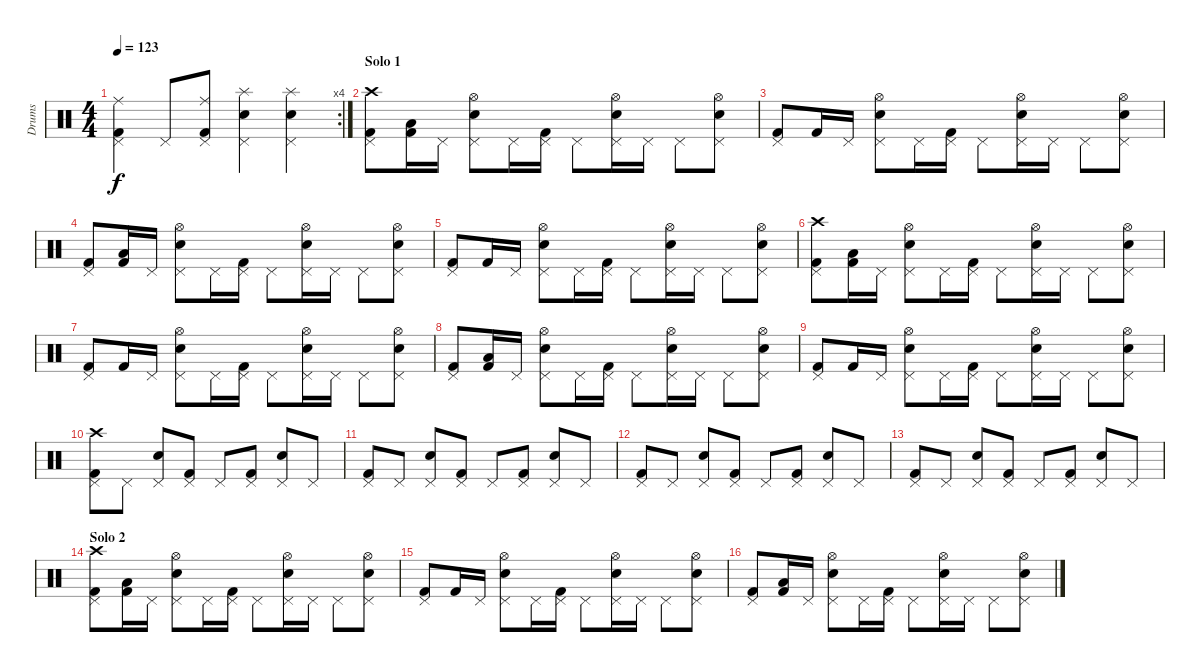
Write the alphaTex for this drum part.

\track ("Drums" "Drums") {instrument percussion}
\staff {score}
\articulation defaults
\rc 4
\ts (4 4)
\tempo 123
\clef neutral
\ks c
("Kick (hit) 2" "Pedal Hi-Hat (hit)" "Ride (middle)").4{dy f} "Pedal Hi-Hat (hit)".8 ("Kick (hit) 2" "Pedal Hi-Hat (hit)" "Ride (middle)").8 ("Snare (hit) 2" "Pedal Hi-Hat (hit)" "Splash (hit)").4 ("Snare (hit) 2" "Pedal Hi-Hat (hit)" "Splash (hit)").4 |
\section ("" "Solo 1")
("Kick (hit) 2" "Pedal Hi-Hat (hit)" "Crash high (hit)").8 ("Kick (hit) 2" "Low Tom (hit)").16 "Pedal Hi-Hat (hit)".16 ("Snare (hit) 2" "Pedal Hi-Hat (hit)" "Hi-Hat (open)").8 "Pedal Hi-Hat (hit)".16 ("Kick (hit) 2" "Pedal Hi-Hat (hit)").16 "Pedal Hi-Hat (hit)".8 ("Snare (hit) 2" "Pedal Hi-Hat (hit)" "Hi-Hat (open)").16 "Pedal Hi-Hat (hit)".16 "Pedal Hi-Hat (hit)".8 ("Snare (hit) 2" "Pedal Hi-Hat (hit)" "Hi-Hat (open)").8 |
("Kick (hit) 2" "Pedal Hi-Hat (hit)").8 "Kick (hit) 2".16 "Pedal Hi-Hat (hit)".16 ("Snare (hit) 2" "Pedal Hi-Hat (hit)" "Hi-Hat (open)").8 "Pedal Hi-Hat (hit)".16 ("Kick (hit) 2" "Pedal Hi-Hat (hit)").16 "Pedal Hi-Hat (hit)".8 ("Snare (hit) 2" "Pedal Hi-Hat (hit)" "Hi-Hat (open)").16 "Pedal Hi-Hat (hit)".16 "Pedal Hi-Hat (hit)".8 ("Snare (hit) 2" "Pedal Hi-Hat (hit)" "Hi-Hat (open)").8 |
("Kick (hit) 2" "Pedal Hi-Hat (hit)").8 ("Kick (hit) 2" "Low Tom (hit)").16 "Pedal Hi-Hat (hit)".16 ("Snare (hit) 2" "Pedal Hi-Hat (hit)" "Hi-Hat (open)").8 "Pedal Hi-Hat (hit)".16 ("Kick (hit) 2" "Pedal Hi-Hat (hit)").16 "Pedal Hi-Hat (hit)".8 ("Snare (hit) 2" "Pedal Hi-Hat (hit)" "Hi-Hat (open)").16 "Pedal Hi-Hat (hit)".16 "Pedal Hi-Hat (hit)".8 ("Snare (hit) 2" "Pedal Hi-Hat (hit)" "Hi-Hat (open)").8 |
("Kick (hit) 2" "Pedal Hi-Hat (hit)").8 "Kick (hit) 2".16 "Pedal Hi-Hat (hit)".16 ("Snare (hit) 2" "Pedal Hi-Hat (hit)" "Hi-Hat (open)").8 "Pedal Hi-Hat (hit)".16 ("Kick (hit) 2" "Pedal Hi-Hat (hit)").16 "Pedal Hi-Hat (hit)".8 ("Snare (hit) 2" "Pedal Hi-Hat (hit)" "Hi-Hat (open)").16 "Pedal Hi-Hat (hit)".16 "Pedal Hi-Hat (hit)".8 ("Snare (hit) 2" "Pedal Hi-Hat (hit)" "Hi-Hat (open)").8 |
("Kick (hit) 2" "Pedal Hi-Hat (hit)" "Crash high (hit)").8 ("Kick (hit) 2" "Low Tom (hit)").16 "Pedal Hi-Hat (hit)".16 ("Snare (hit) 2" "Pedal Hi-Hat (hit)" "Hi-Hat (open)").8 "Pedal Hi-Hat (hit)".16 ("Kick (hit) 2" "Pedal Hi-Hat (hit)").16 "Pedal Hi-Hat (hit)".8 ("Snare (hit) 2" "Pedal Hi-Hat (hit)" "Hi-Hat (open)").16 "Pedal Hi-Hat (hit)".16 "Pedal Hi-Hat (hit)".8 ("Snare (hit) 2" "Pedal Hi-Hat (hit)" "Hi-Hat (open)").8 |
("Kick (hit) 2" "Pedal Hi-Hat (hit)").8 "Kick (hit) 2".16 "Pedal Hi-Hat (hit)".16 ("Snare (hit) 2" "Pedal Hi-Hat (hit)" "Hi-Hat (open)").8 "Pedal Hi-Hat (hit)".16 ("Kick (hit) 2" "Pedal Hi-Hat (hit)").16 "Pedal Hi-Hat (hit)".8 ("Snare (hit) 2" "Pedal Hi-Hat (hit)" "Hi-Hat (open)").16 "Pedal Hi-Hat (hit)".16 "Pedal Hi-Hat (hit)".8 ("Snare (hit) 2" "Pedal Hi-Hat (hit)" "Hi-Hat (open)").8 |
("Kick (hit) 2" "Pedal Hi-Hat (hit)").8 ("Kick (hit) 2" "Low Tom (hit)").16 "Pedal Hi-Hat (hit)".16 ("Snare (hit) 2" "Pedal Hi-Hat (hit)" "Hi-Hat (open)").8 "Pedal Hi-Hat (hit)".16 ("Kick (hit) 2" "Pedal Hi-Hat (hit)").16 "Pedal Hi-Hat (hit)".8 ("Snare (hit) 2" "Pedal Hi-Hat (hit)" "Hi-Hat (open)").16 "Pedal Hi-Hat (hit)".16 "Pedal Hi-Hat (hit)".8 ("Snare (hit) 2" "Pedal Hi-Hat (hit)" "Hi-Hat (open)").8 |
("Kick (hit) 2" "Pedal Hi-Hat (hit)").8 "Kick (hit) 2".16 "Pedal Hi-Hat (hit)".16 ("Snare (hit) 2" "Pedal Hi-Hat (hit)" "Hi-Hat (open)").8 "Pedal Hi-Hat (hit)".16 ("Kick (hit) 2" "Pedal Hi-Hat (hit)").16 "Pedal Hi-Hat (hit)".8 ("Snare (hit) 2" "Pedal Hi-Hat (hit)" "Hi-Hat (open)").16 "Pedal Hi-Hat (hit)".16 "Pedal Hi-Hat (hit)".8 ("Snare (hit) 2" "Pedal Hi-Hat (hit)" "Hi-Hat (open)").8 |
("Kick (hit) 2" "Pedal Hi-Hat (hit)" "Crash high (hit)").8 "Pedal Hi-Hat (hit)".8 ("Snare (hit) 2" "Pedal Hi-Hat (hit)").8 ("Kick (hit) 2" "Pedal Hi-Hat (hit)").8 "Pedal Hi-Hat (hit)".8 ("Kick (hit) 2" "Pedal Hi-Hat (hit)").8 ("Snare (hit) 2" "Pedal Hi-Hat (hit)").8 "Pedal Hi-Hat (hit)".8 |
("Kick (hit) 2" "Pedal Hi-Hat (hit)").8 "Pedal Hi-Hat (hit)".8 ("Snare (hit) 2" "Pedal Hi-Hat (hit)").8 ("Kick (hit) 2" "Pedal Hi-Hat (hit)").8 "Pedal Hi-Hat (hit)".8 ("Kick (hit) 2" "Pedal Hi-Hat (hit)").8 ("Snare (hit) 2" "Pedal Hi-Hat (hit)").8 "Pedal Hi-Hat (hit)".8 |
("Kick (hit) 2" "Pedal Hi-Hat (hit)").8 "Pedal Hi-Hat (hit)".8 ("Snare (hit) 2" "Pedal Hi-Hat (hit)").8 ("Kick (hit) 2" "Pedal Hi-Hat (hit)").8 "Pedal Hi-Hat (hit)".8 ("Kick (hit) 2" "Pedal Hi-Hat (hit)").8 ("Snare (hit) 2" "Pedal Hi-Hat (hit)").8 "Pedal Hi-Hat (hit)".8 |
("Kick (hit) 2" "Pedal Hi-Hat (hit)").8 "Pedal Hi-Hat (hit)".8 ("Snare (hit) 2" "Pedal Hi-Hat (hit)").8 ("Kick (hit) 2" "Pedal Hi-Hat (hit)").8 "Pedal Hi-Hat (hit)".8 ("Kick (hit) 2" "Pedal Hi-Hat (hit)").8 ("Snare (hit) 2" "Pedal Hi-Hat (hit)").8 "Pedal Hi-Hat (hit)".8 |
\section ("" "Solo 2")
("Kick (hit) 2" "Pedal Hi-Hat (hit)" "Crash high (hit)").8 ("Kick (hit) 2" "Low Tom (hit)").16 "Pedal Hi-Hat (hit)".16 ("Snare (hit) 2" "Pedal Hi-Hat (hit)" "Hi-Hat (open)").8 "Pedal Hi-Hat (hit)".16 ("Kick (hit) 2" "Pedal Hi-Hat (hit)").16 "Pedal Hi-Hat (hit)".8 ("Snare (hit) 2" "Pedal Hi-Hat (hit)" "Hi-Hat (open)").16 "Pedal Hi-Hat (hit)".16 "Pedal Hi-Hat (hit)".8 ("Snare (hit) 2" "Pedal Hi-Hat (hit)" "Hi-Hat (open)").8 |
("Kick (hit) 2" "Pedal Hi-Hat (hit)").8 "Kick (hit) 2".16 "Pedal Hi-Hat (hit)".16 ("Snare (hit) 2" "Pedal Hi-Hat (hit)" "Hi-Hat (open)").8 "Pedal Hi-Hat (hit)".16 ("Kick (hit) 2" "Pedal Hi-Hat (hit)").16 "Pedal Hi-Hat (hit)".8 ("Snare (hit) 2" "Pedal Hi-Hat (hit)" "Hi-Hat (open)").16 "Pedal Hi-Hat (hit)".16 "Pedal Hi-Hat (hit)".8 ("Snare (hit) 2" "Pedal Hi-Hat (hit)" "Hi-Hat (open)").8 |
("Kick (hit) 2" "Pedal Hi-Hat (hit)").8 ("Kick (hit) 2" "Low Tom (hit)").16 "Pedal Hi-Hat (hit)".16 ("Snare (hit) 2" "Pedal Hi-Hat (hit)" "Hi-Hat (open)").8 "Pedal Hi-Hat (hit)".16 ("Kick (hit) 2" "Pedal Hi-Hat (hit)").16 "Pedal Hi-Hat (hit)".8 ("Snare (hit) 2" "Pedal Hi-Hat (hit)" "Hi-Hat (open)").16 "Pedal Hi-Hat (hit)".16 "Pedal Hi-Hat (hit)".8 ("Snare (hit) 2" "Pedal Hi-Hat (hit)" "Hi-Hat (open)").8
